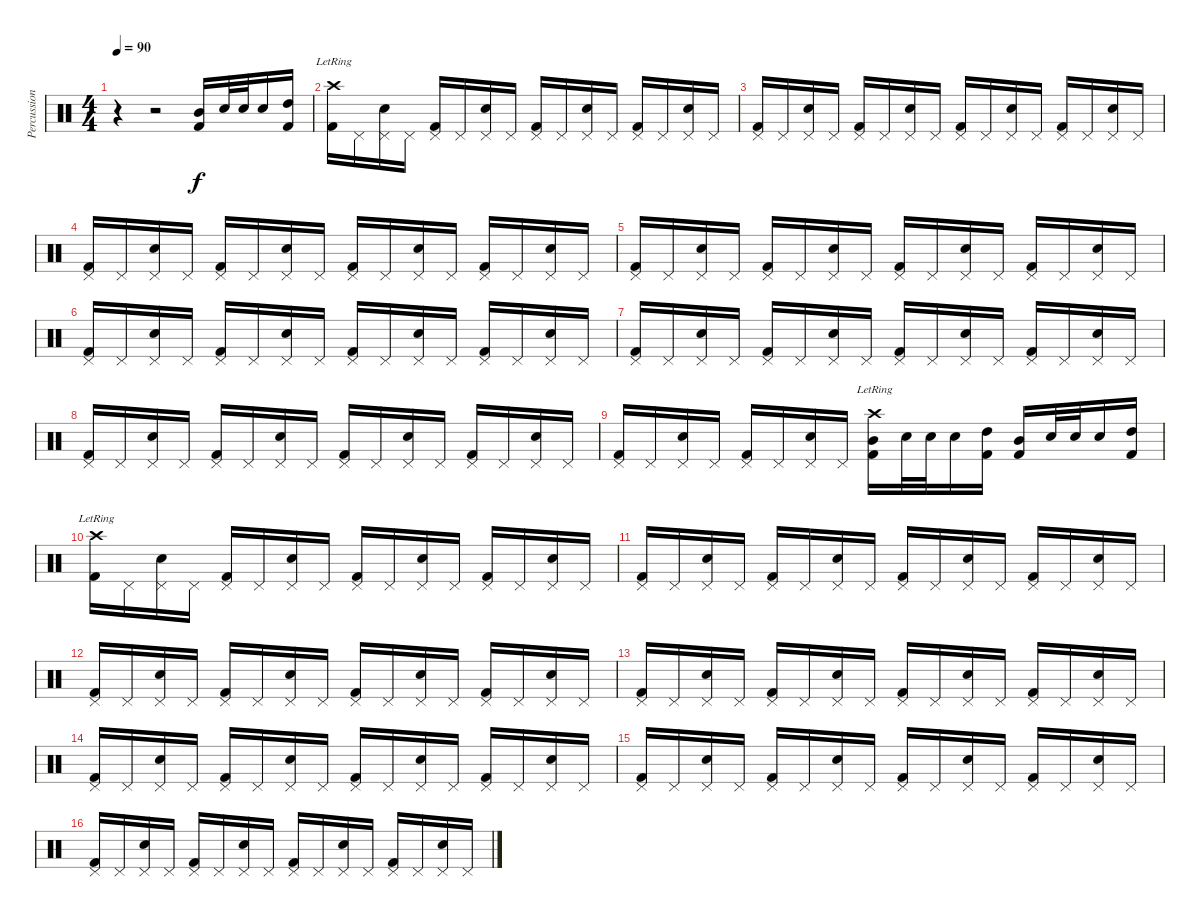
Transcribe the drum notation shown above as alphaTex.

\track ("Percussion" "Percussion") {instrument percussion}
\staff {score}
\articulation defaults
\ts (4 4)
\tempo 90
\clef neutral
\ks c
r.4{dy f} r.2 ("Mid Tom (hit)" "Kick (hit) 2").16 "Snare (hit) 2".32 "Snare (hit) 2".32 "Snare (hit) 2".16 ("High Tom (hit)" "Kick (hit) 2").16 |
("Crash high (hit)"{lr} "Kick (hit) 2").16 "Pedal Hi-Hat (hit)".16 ("Pedal Hi-Hat (hit)" "Snare (hit) 2").16 "Pedal Hi-Hat (hit)".16 ("Pedal Hi-Hat (hit)" "Kick (hit) 2").16 "Pedal Hi-Hat (hit)".16 ("Pedal Hi-Hat (hit)" "Snare (hit) 2").16 "Pedal Hi-Hat (hit)".16 ("Pedal Hi-Hat (hit)" "Kick (hit) 2").16 "Pedal Hi-Hat (hit)".16 ("Pedal Hi-Hat (hit)" "Snare (hit) 2").16 "Pedal Hi-Hat (hit)".16 ("Pedal Hi-Hat (hit)" "Kick (hit) 2").16 "Pedal Hi-Hat (hit)".16 ("Pedal Hi-Hat (hit)" "Snare (hit) 2").16 "Pedal Hi-Hat (hit)".16 |
("Pedal Hi-Hat (hit)" "Kick (hit) 2").16 "Pedal Hi-Hat (hit)".16 ("Pedal Hi-Hat (hit)" "Snare (hit) 2").16 "Pedal Hi-Hat (hit)".16 ("Pedal Hi-Hat (hit)" "Kick (hit) 2").16 "Pedal Hi-Hat (hit)".16 ("Pedal Hi-Hat (hit)" "Snare (hit) 2").16 "Pedal Hi-Hat (hit)".16 ("Pedal Hi-Hat (hit)" "Kick (hit) 2").16 "Pedal Hi-Hat (hit)".16 ("Pedal Hi-Hat (hit)" "Snare (hit) 2").16 "Pedal Hi-Hat (hit)".16 ("Pedal Hi-Hat (hit)" "Kick (hit) 2").16 "Pedal Hi-Hat (hit)".16 ("Pedal Hi-Hat (hit)" "Snare (hit) 2").16 "Pedal Hi-Hat (hit)".16 |
("Pedal Hi-Hat (hit)" "Kick (hit) 2").16 "Pedal Hi-Hat (hit)".16 ("Pedal Hi-Hat (hit)" "Snare (hit) 2").16 "Pedal Hi-Hat (hit)".16 ("Pedal Hi-Hat (hit)" "Kick (hit) 2").16 "Pedal Hi-Hat (hit)".16 ("Pedal Hi-Hat (hit)" "Snare (hit) 2").16 "Pedal Hi-Hat (hit)".16 ("Pedal Hi-Hat (hit)" "Kick (hit) 2").16 "Pedal Hi-Hat (hit)".16 ("Pedal Hi-Hat (hit)" "Snare (hit) 2").16 "Pedal Hi-Hat (hit)".16 ("Pedal Hi-Hat (hit)" "Kick (hit) 2").16 "Pedal Hi-Hat (hit)".16 ("Pedal Hi-Hat (hit)" "Snare (hit) 2").16 "Pedal Hi-Hat (hit)".16 |
("Pedal Hi-Hat (hit)" "Kick (hit) 2").16 "Pedal Hi-Hat (hit)".16 ("Pedal Hi-Hat (hit)" "Snare (hit) 2").16 "Pedal Hi-Hat (hit)".16 ("Pedal Hi-Hat (hit)" "Kick (hit) 2").16 "Pedal Hi-Hat (hit)".16 ("Pedal Hi-Hat (hit)" "Snare (hit) 2").16 "Pedal Hi-Hat (hit)".16 ("Pedal Hi-Hat (hit)" "Kick (hit) 2").16 "Pedal Hi-Hat (hit)".16 ("Pedal Hi-Hat (hit)" "Snare (hit) 2").16 "Pedal Hi-Hat (hit)".16 ("Pedal Hi-Hat (hit)" "Kick (hit) 2").16 "Pedal Hi-Hat (hit)".16 ("Pedal Hi-Hat (hit)" "Snare (hit) 2").16 "Pedal Hi-Hat (hit)".16 |
("Pedal Hi-Hat (hit)" "Kick (hit) 2").16 "Pedal Hi-Hat (hit)".16 ("Pedal Hi-Hat (hit)" "Snare (hit) 2").16 "Pedal Hi-Hat (hit)".16 ("Pedal Hi-Hat (hit)" "Kick (hit) 2").16 "Pedal Hi-Hat (hit)".16 ("Pedal Hi-Hat (hit)" "Snare (hit) 2").16 "Pedal Hi-Hat (hit)".16 ("Pedal Hi-Hat (hit)" "Kick (hit) 2").16 "Pedal Hi-Hat (hit)".16 ("Pedal Hi-Hat (hit)" "Snare (hit) 2").16 "Pedal Hi-Hat (hit)".16 ("Pedal Hi-Hat (hit)" "Kick (hit) 2").16 "Pedal Hi-Hat (hit)".16 ("Pedal Hi-Hat (hit)" "Snare (hit) 2").16 "Pedal Hi-Hat (hit)".16 |
("Pedal Hi-Hat (hit)" "Kick (hit) 2").16 "Pedal Hi-Hat (hit)".16 ("Pedal Hi-Hat (hit)" "Snare (hit) 2").16 "Pedal Hi-Hat (hit)".16 ("Pedal Hi-Hat (hit)" "Kick (hit) 2").16 "Pedal Hi-Hat (hit)".16 ("Pedal Hi-Hat (hit)" "Snare (hit) 2").16 "Pedal Hi-Hat (hit)".16 ("Pedal Hi-Hat (hit)" "Kick (hit) 2").16 "Pedal Hi-Hat (hit)".16 ("Pedal Hi-Hat (hit)" "Snare (hit) 2").16 "Pedal Hi-Hat (hit)".16 ("Pedal Hi-Hat (hit)" "Kick (hit) 2").16 "Pedal Hi-Hat (hit)".16 ("Pedal Hi-Hat (hit)" "Snare (hit) 2").16 "Pedal Hi-Hat (hit)".16 |
("Pedal Hi-Hat (hit)" "Kick (hit) 2").16 "Pedal Hi-Hat (hit)".16 ("Pedal Hi-Hat (hit)" "Snare (hit) 2").16 "Pedal Hi-Hat (hit)".16 ("Pedal Hi-Hat (hit)" "Kick (hit) 2").16 "Pedal Hi-Hat (hit)".16 ("Pedal Hi-Hat (hit)" "Snare (hit) 2").16 "Pedal Hi-Hat (hit)".16 ("Pedal Hi-Hat (hit)" "Kick (hit) 2").16 "Pedal Hi-Hat (hit)".16 ("Pedal Hi-Hat (hit)" "Snare (hit) 2").16 "Pedal Hi-Hat (hit)".16 ("Pedal Hi-Hat (hit)" "Kick (hit) 2").16 "Pedal Hi-Hat (hit)".16 ("Pedal Hi-Hat (hit)" "Snare (hit) 2").16 "Pedal Hi-Hat (hit)".16 |
("Pedal Hi-Hat (hit)" "Kick (hit) 2").16 "Pedal Hi-Hat (hit)".16 ("Pedal Hi-Hat (hit)" "Snare (hit) 2").16 "Pedal Hi-Hat (hit)".16 ("Pedal Hi-Hat (hit)" "Kick (hit) 2").16 "Pedal Hi-Hat (hit)".16 ("Pedal Hi-Hat (hit)" "Snare (hit) 2").16 "Pedal Hi-Hat (hit)".16 ("Crash high (hit)"{lr} "Mid Tom (hit)" "Kick (hit) 2").16 "Snare (hit) 2".32 "Snare (hit) 2".32 "Snare (hit) 2".16 ("High Tom (hit)" "Kick (hit) 2").16 ("Mid Tom (hit)" "Kick (hit) 2").16 "Snare (hit) 2".32 "Snare (hit) 2".32 "Snare (hit) 2".16 ("High Tom (hit)" "Kick (hit) 2").16 |
("Crash high (hit)"{lr} "Kick (hit) 2").16 "Pedal Hi-Hat (hit)".16 ("Pedal Hi-Hat (hit)" "Snare (hit) 2").16 "Pedal Hi-Hat (hit)".16 ("Pedal Hi-Hat (hit)" "Kick (hit) 2").16 "Pedal Hi-Hat (hit)".16 ("Pedal Hi-Hat (hit)" "Snare (hit) 2").16 "Pedal Hi-Hat (hit)".16 ("Pedal Hi-Hat (hit)" "Kick (hit) 2").16 "Pedal Hi-Hat (hit)".16 ("Pedal Hi-Hat (hit)" "Snare (hit) 2").16 "Pedal Hi-Hat (hit)".16 ("Pedal Hi-Hat (hit)" "Kick (hit) 2").16 "Pedal Hi-Hat (hit)".16 ("Pedal Hi-Hat (hit)" "Snare (hit) 2").16 "Pedal Hi-Hat (hit)".16 |
("Pedal Hi-Hat (hit)" "Kick (hit) 2").16 "Pedal Hi-Hat (hit)".16 ("Pedal Hi-Hat (hit)" "Snare (hit) 2").16 "Pedal Hi-Hat (hit)".16 ("Pedal Hi-Hat (hit)" "Kick (hit) 2").16 "Pedal Hi-Hat (hit)".16 ("Pedal Hi-Hat (hit)" "Snare (hit) 2").16 "Pedal Hi-Hat (hit)".16 ("Pedal Hi-Hat (hit)" "Kick (hit) 2").16 "Pedal Hi-Hat (hit)".16 ("Pedal Hi-Hat (hit)" "Snare (hit) 2").16 "Pedal Hi-Hat (hit)".16 ("Pedal Hi-Hat (hit)" "Kick (hit) 2").16 "Pedal Hi-Hat (hit)".16 ("Pedal Hi-Hat (hit)" "Snare (hit) 2").16 "Pedal Hi-Hat (hit)".16 |
("Pedal Hi-Hat (hit)" "Kick (hit) 2").16 "Pedal Hi-Hat (hit)".16 ("Pedal Hi-Hat (hit)" "Snare (hit) 2").16 "Pedal Hi-Hat (hit)".16 ("Pedal Hi-Hat (hit)" "Kick (hit) 2").16 "Pedal Hi-Hat (hit)".16 ("Pedal Hi-Hat (hit)" "Snare (hit) 2").16 "Pedal Hi-Hat (hit)".16 ("Pedal Hi-Hat (hit)" "Kick (hit) 2").16 "Pedal Hi-Hat (hit)".16 ("Pedal Hi-Hat (hit)" "Snare (hit) 2").16 "Pedal Hi-Hat (hit)".16 ("Pedal Hi-Hat (hit)" "Kick (hit) 2").16 "Pedal Hi-Hat (hit)".16 ("Pedal Hi-Hat (hit)" "Snare (hit) 2").16 "Pedal Hi-Hat (hit)".16 |
("Pedal Hi-Hat (hit)" "Kick (hit) 2").16 "Pedal Hi-Hat (hit)".16 ("Pedal Hi-Hat (hit)" "Snare (hit) 2").16 "Pedal Hi-Hat (hit)".16 ("Pedal Hi-Hat (hit)" "Kick (hit) 2").16 "Pedal Hi-Hat (hit)".16 ("Pedal Hi-Hat (hit)" "Snare (hit) 2").16 "Pedal Hi-Hat (hit)".16 ("Pedal Hi-Hat (hit)" "Kick (hit) 2").16 "Pedal Hi-Hat (hit)".16 ("Pedal Hi-Hat (hit)" "Snare (hit) 2").16 "Pedal Hi-Hat (hit)".16 ("Pedal Hi-Hat (hit)" "Kick (hit) 2").16 "Pedal Hi-Hat (hit)".16 ("Pedal Hi-Hat (hit)" "Snare (hit) 2").16 "Pedal Hi-Hat (hit)".16 |
("Pedal Hi-Hat (hit)" "Kick (hit) 2").16 "Pedal Hi-Hat (hit)".16 ("Pedal Hi-Hat (hit)" "Snare (hit) 2").16 "Pedal Hi-Hat (hit)".16 ("Pedal Hi-Hat (hit)" "Kick (hit) 2").16 "Pedal Hi-Hat (hit)".16 ("Pedal Hi-Hat (hit)" "Snare (hit) 2").16 "Pedal Hi-Hat (hit)".16 ("Pedal Hi-Hat (hit)" "Kick (hit) 2").16 "Pedal Hi-Hat (hit)".16 ("Pedal Hi-Hat (hit)" "Snare (hit) 2").16 "Pedal Hi-Hat (hit)".16 ("Pedal Hi-Hat (hit)" "Kick (hit) 2").16 "Pedal Hi-Hat (hit)".16 ("Pedal Hi-Hat (hit)" "Snare (hit) 2").16 "Pedal Hi-Hat (hit)".16 |
("Pedal Hi-Hat (hit)" "Kick (hit) 2").16 "Pedal Hi-Hat (hit)".16 ("Pedal Hi-Hat (hit)" "Snare (hit) 2").16 "Pedal Hi-Hat (hit)".16 ("Pedal Hi-Hat (hit)" "Kick (hit) 2").16 "Pedal Hi-Hat (hit)".16 ("Pedal Hi-Hat (hit)" "Snare (hit) 2").16 "Pedal Hi-Hat (hit)".16 ("Pedal Hi-Hat (hit)" "Kick (hit) 2").16 "Pedal Hi-Hat (hit)".16 ("Pedal Hi-Hat (hit)" "Snare (hit) 2").16 "Pedal Hi-Hat (hit)".16 ("Pedal Hi-Hat (hit)" "Kick (hit) 2").16 "Pedal Hi-Hat (hit)".16 ("Pedal Hi-Hat (hit)" "Snare (hit) 2").16 "Pedal Hi-Hat (hit)".16 |
("Pedal Hi-Hat (hit)" "Kick (hit) 2").16 "Pedal Hi-Hat (hit)".16 ("Pedal Hi-Hat (hit)" "Snare (hit) 2").16 "Pedal Hi-Hat (hit)".16 ("Pedal Hi-Hat (hit)" "Kick (hit) 2").16 "Pedal Hi-Hat (hit)".16 ("Pedal Hi-Hat (hit)" "Snare (hit) 2").16 "Pedal Hi-Hat (hit)".16 ("Pedal Hi-Hat (hit)" "Kick (hit) 2").16 "Pedal Hi-Hat (hit)".16 ("Pedal Hi-Hat (hit)" "Snare (hit) 2").16 "Pedal Hi-Hat (hit)".16 ("Pedal Hi-Hat (hit)" "Kick (hit) 2").16 "Pedal Hi-Hat (hit)".16 ("Pedal Hi-Hat (hit)" "Snare (hit) 2").16 "Pedal Hi-Hat (hit)".16
